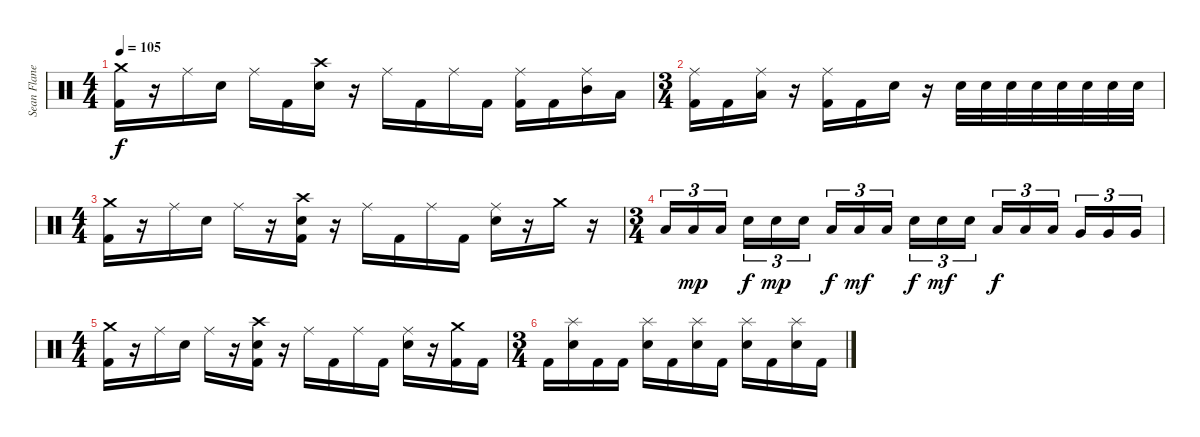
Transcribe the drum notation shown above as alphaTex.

\track ("Sean Flanegan [Drums]" "Sean Flane") {instrument percussion}
\staff {score}
\articulation defaults
\ts (4 4)
\tempo 105
\clef neutral
\ks c
("Crash medium (hit)" "Kick (hit) 2").16{dy f volume 0} r.16 "Ride (middle)".16 "Electric Snare (hit)".16 "Ride (middle)".16 "Kick (hit) 2".16 ("Crash high (hit)" "Electric Snare (hit)").16 r.16 "Ride (middle)".16 "Kick (hit) 2".16 "Ride (middle)".16 "Kick (hit) 2".16 ("Ride (middle)" "Kick (hit) 2").16 "Kick (hit) 2".16 ("Ride (middle)" "Mid Tom (hit)").16 "Low Tom (hit)".16 |
\ts (3 4)
("Ride (middle)" "Kick (hit) 2").16 "Kick (hit) 2".16 ("Ride (middle)" "Low Tom (hit)").16 r.16 ("Ride (middle)" "Kick (hit) 2").16 "Kick (hit) 2".16 "Electric Snare (hit)".16 r.16 "Electric Snare (hit)".32 "Electric Snare (hit)".32 "Electric Snare (hit)".32 "Electric Snare (hit)".32 "Electric Snare (hit)".32 "Electric Snare (hit)".32 "Electric Snare (hit)".32 "Electric Snare (hit)".32 |
\ts (4 4)
("Crash medium (hit)" "Kick (hit) 2").16 r.16 "Ride (middle)".16 "Electric Snare (hit)".16 "Ride (middle)".16 r.16 ("Crash high (hit)" "Electric Snare (hit)" "Kick (hit) 2").16 r.16 "Ride (middle)".16 "Kick (hit) 2".16 "Ride (middle)".16 "Kick (hit) 2".16 ("Ride (middle)" "Electric Snare (hit)").16 r.16 "Crash medium (hit)".16 r.16 |
\ts (3 4)
"Low Tom (hit)".16{tu (3 2)} "Low Tom (hit)".16{tu (3 2) dy mp} "Low Tom (hit)".16{tu (3 2)} "Electric Snare (hit)".16{tu (3 2) dy f} "Electric Snare (hit)".16{tu (3 2) dy mp} "Electric Snare (hit)".16{tu (3 2)} "Low Tom (hit)".16{tu (3 2) dy f} "Low Tom (hit)".16{tu (3 2) dy mf} "Low Tom (hit)".16{tu (3 2)} "Electric Snare (hit)".16{tu (3 2) dy f} "Electric Snare (hit)".16{tu (3 2) dy mf} "Electric Snare (hit)".16{tu (3 2)} "Low Tom (hit)".16{tu (3 2) dy f} "Low Tom (hit)".16{tu (3 2)} "Low Tom (hit)".16{tu (3 2)} "Very Low Tom (hit)".16{tu (3 2)} "Very Low Tom (hit)".16{tu (3 2)} "Very Low Tom (hit)".16{tu (3 2)} |
\ts (4 4)
("Crash medium (hit)" "Kick (hit) 2").16 r.16 "Ride (middle)".16 "Electric Snare (hit)".16 "Ride (middle)".16 r.16 ("Crash high (hit)" "Electric Snare (hit)" "Kick (hit) 2").16 r.16 "Ride (middle)".16 "Kick (hit) 2".16 "Ride (middle)".16 "Kick (hit) 2".16 ("Ride (middle)" "Electric Snare (hit)").16 r.16 ("Crash medium (hit)" "Kick (hit) 2").16 "Kick (hit) 2".16 |
\ts (3 4)
"Kick (hit) 2".16 ("Splash (hit)" "Electric Snare (hit)").16 "Kick (hit) 2".16 "Kick (hit) 2".16 ("Splash (hit)" "Electric Snare (hit)").16 "Kick (hit) 2".16 ("Splash (hit)" "Electric Snare (hit)").16 "Kick (hit) 2".16 ("Splash (hit)" "Electric Snare (hit)").16 "Kick (hit) 2".16 ("Splash (hit)" "Electric Snare (hit)").16 "Kick (hit) 2".16
